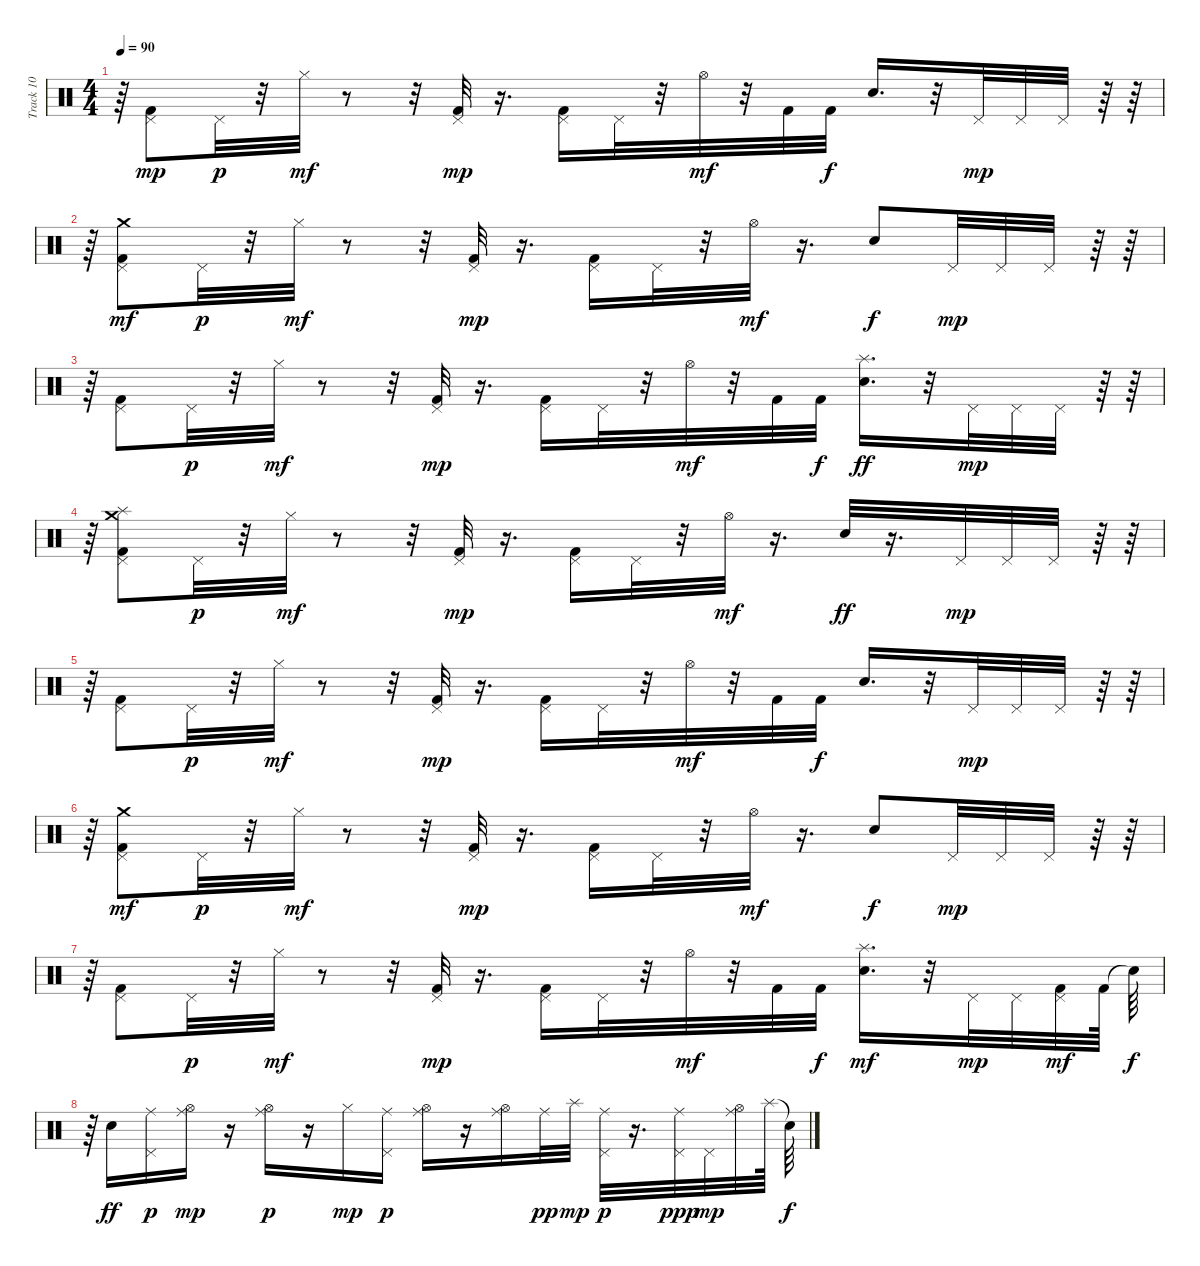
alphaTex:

\track ("Track 10" "Track 10") {instrument percussion}
\staff {score}
\articulation defaults
\ts (4 4)
\tempo 90
\clef neutral
\ks c
r.64{dy mp} ("Pedal Hi-Hat (hit)" "Kick (hit) 2").8 "Pedal Hi-Hat (hit)".32{dy p} r.32 "Hi-Hat (closed)".32{dy mf} r.8 r.32 ("Pedal Hi-Hat (hit)" "Kick (hit) 2").32{dy mp} r.16{d} ("Pedal Hi-Hat (hit)" "Kick (hit) 2").16 "Pedal Hi-Hat (hit)".32 r.32 "Hi-Hat (open)".32{dy mf} r.32 "Kick (hit) 2".32 "Kick (hit) 2".32{dy f} "Snare (hit) 2".16{d} r.32 "Pedal Hi-Hat (hit)".32{dy mp} "Pedal Hi-Hat (hit)".32 "Pedal Hi-Hat (hit)".32 r.64 r.64 |
r.64 ("Pedal Hi-Hat (hit)" "Crash medium (hit)" "Kick (hit) 2").8{dy mf} "Pedal Hi-Hat (hit)".32{dy p} r.32 "Hi-Hat (closed)".32{dy mf} r.8 r.32 ("Pedal Hi-Hat (hit)" "Kick (hit) 2").32{dy mp} r.16{d} ("Pedal Hi-Hat (hit)" "Kick (hit) 2").16 "Pedal Hi-Hat (hit)".32 r.32 "Hi-Hat (open)".32{dy mf} r.16{d} "Snare (hit) 2".8{dy f} "Pedal Hi-Hat (hit)".32{dy mp} "Pedal Hi-Hat (hit)".32 "Pedal Hi-Hat (hit)".32 r.64 r.64 |
r.64 ("Pedal Hi-Hat (hit)" "Kick (hit) 2").8 "Pedal Hi-Hat (hit)".32{dy p} r.32 "Hi-Hat (closed)".32{dy mf} r.8 r.32 ("Pedal Hi-Hat (hit)" "Kick (hit) 2").32{dy mp} r.16{d} ("Pedal Hi-Hat (hit)" "Kick (hit) 2").16 "Pedal Hi-Hat (hit)".32 r.32 "Hi-Hat (open)".32{dy mf} r.32 "Kick (hit) 2".32 "Kick (hit) 2".32{dy f} ("Splash (hit)" "Snare (hit) 2").16{d dy ff} r.32 "Pedal Hi-Hat (hit)".32{dy mp} "Pedal Hi-Hat (hit)".32 "Pedal Hi-Hat (hit)".32 r.64 r.64 |
r.64 ("Pedal Hi-Hat (hit)" "Crash medium (hit)" "Splash (hit)" "Kick (hit) 2").8 "Pedal Hi-Hat (hit)".32{dy p} r.32 "Hi-Hat (closed)".32{dy mf} r.8 r.32 ("Pedal Hi-Hat (hit)" "Kick (hit) 2").32{dy mp} r.16{d} ("Pedal Hi-Hat (hit)" "Kick (hit) 2").16 "Pedal Hi-Hat (hit)".32 r.32 "Hi-Hat (open)".32{dy mf} r.16{d} "Snare (hit) 2".32{dy ff} r.16{d} "Pedal Hi-Hat (hit)".32{dy mp} "Pedal Hi-Hat (hit)".32 "Pedal Hi-Hat (hit)".32 r.64 r.64 |
r.64 ("Pedal Hi-Hat (hit)" "Kick (hit) 2").8 "Pedal Hi-Hat (hit)".32{dy p} r.32 "Hi-Hat (closed)".32{dy mf} r.8 r.32 ("Pedal Hi-Hat (hit)" "Kick (hit) 2").32{dy mp} r.16{d} ("Pedal Hi-Hat (hit)" "Kick (hit) 2").16 "Pedal Hi-Hat (hit)".32 r.32 "Hi-Hat (open)".32{dy mf} r.32 "Kick (hit) 2".32 "Kick (hit) 2".32{dy f} "Snare (hit) 2".16{d} r.32 "Pedal Hi-Hat (hit)".32{dy mp} "Pedal Hi-Hat (hit)".32 "Pedal Hi-Hat (hit)".32 r.64 r.64 |
r.64 ("Pedal Hi-Hat (hit)" "Crash medium (hit)" "Kick (hit) 2").8{dy mf} "Pedal Hi-Hat (hit)".32{dy p} r.32 "Hi-Hat (closed)".32{dy mf} r.8 r.32 ("Pedal Hi-Hat (hit)" "Kick (hit) 2").32{dy mp} r.16{d} ("Pedal Hi-Hat (hit)" "Kick (hit) 2").16 "Pedal Hi-Hat (hit)".32 r.32 "Hi-Hat (open)".32{dy mf} r.16{d} "Snare (hit) 2".8{dy f} "Pedal Hi-Hat (hit)".32{dy mp} "Pedal Hi-Hat (hit)".32 "Pedal Hi-Hat (hit)".32 r.64 r.64 |
r.64 ("Pedal Hi-Hat (hit)" "Kick (hit) 2").8 "Pedal Hi-Hat (hit)".32{dy p} r.32 "Hi-Hat (closed)".32{dy mf} r.8 r.32 ("Pedal Hi-Hat (hit)" "Kick (hit) 2").32{dy mp} r.16{d} ("Pedal Hi-Hat (hit)" "Kick (hit) 2").16 "Pedal Hi-Hat (hit)".32 r.32 "Hi-Hat (open)".32{dy mf} r.32 "Kick (hit) 2".32 "Kick (hit) 2".32{dy f} ("Splash (hit)" "Snare (hit) 2").16{d dy mf} r.32 "Pedal Hi-Hat (hit)".32{dy mp} "Pedal Hi-Hat (hit)".32 ("Pedal Hi-Hat (hit)" "Kick (hit) 2").32{dy mf} "Kick (hit) 2".64 "Snare (hit)"{t}.64{dy f} |
r.64 "Snare (hit) 2".16{dy ff} ("Ride (middle)" "Pedal Hi-Hat (hit)").16{dy p} ("Ride (middle)" "Hi-Hat (open)").16{dy mp} r.16 ("Hi-Hat (open)" "Ride (middle)").16{dy p} r.16 "Hi-Hat (closed)".16{dy mp} ("Ride (middle)" "Pedal Hi-Hat (hit)").16{dy p} ("Ride (middle)" "Hi-Hat (open)").16 r.16 ("Ride (middle)" "Hi-Hat (open)").16 "Ride (middle)".32{dy pp} "Splash (hit)".32{dy mp} ("Pedal Hi-Hat (hit)" "Ride (middle)").32{dy p} r.16{d} ("Pedal Hi-Hat (hit)" "Ride (middle)").32{dy ppp} "Pedal Hi-Hat (hit)".32{dy mp} ("Ride (middle)" "Hi-Hat (open)").32 "Splash (hit)".64 "Snare (hit)"{t}.64{dy f}
